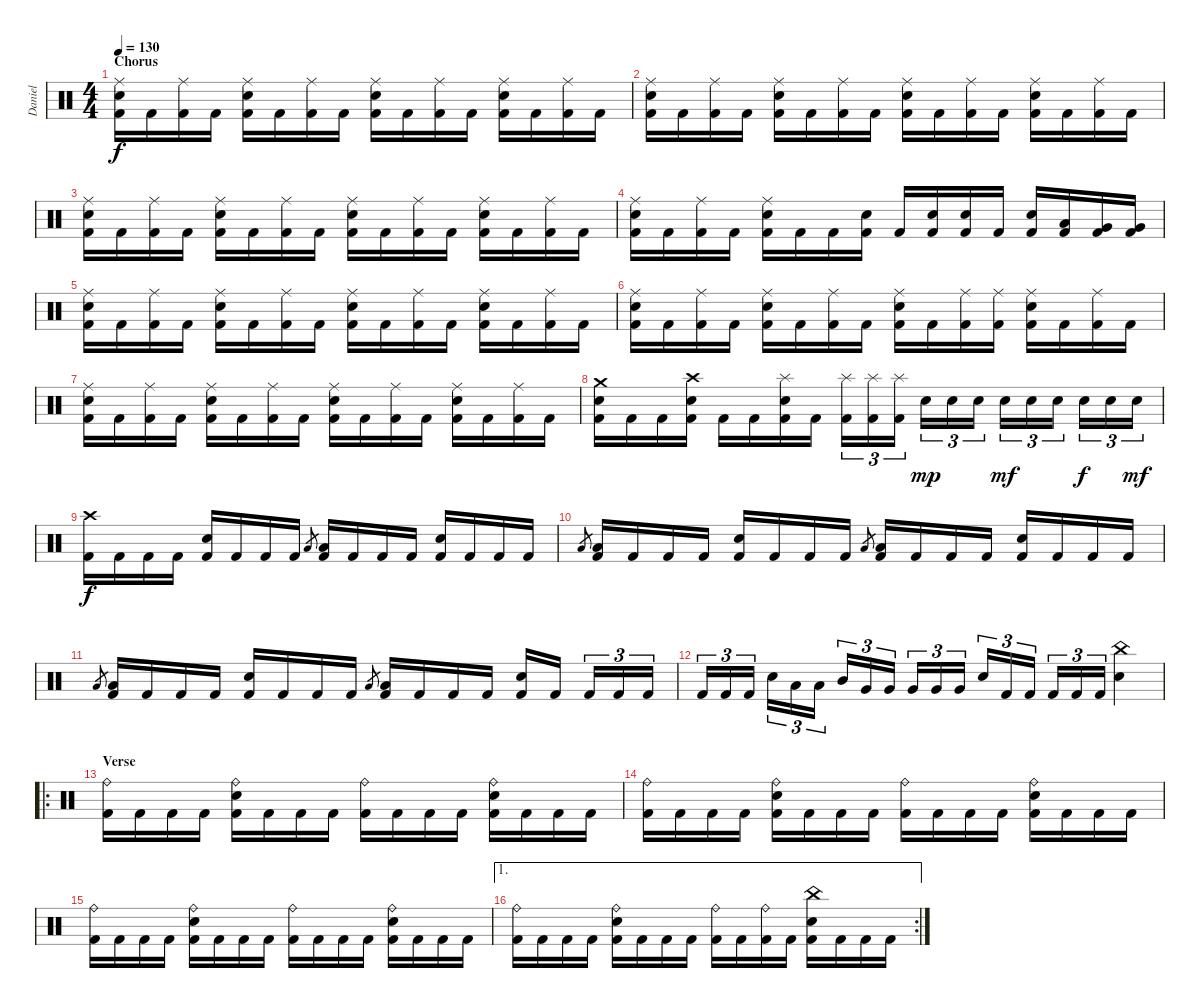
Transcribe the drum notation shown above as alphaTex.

\track ("Daniel" "Daniel") {instrument percussion}
\staff {score}
\articulation defaults
\ts (4 4)
\section ("" "Chorus")
\tempo 130
\clef neutral
\ks c
("Ride (middle)" "Electric Snare (hit)" "Kick (hit) 2").16{dy f} "Kick (hit) 2".16 ("Ride (middle)" "Kick (hit) 2").16 "Kick (hit) 2".16 ("Ride (middle)" "Electric Snare (hit)" "Kick (hit) 2").16 "Kick (hit) 2".16 ("Ride (middle)" "Kick (hit) 2").16 "Kick (hit) 2".16 ("Ride (middle)" "Electric Snare (hit)" "Kick (hit) 2").16 "Kick (hit) 2".16 ("Ride (middle)" "Kick (hit) 2").16 "Kick (hit) 2".16 ("Ride (middle)" "Electric Snare (hit)" "Kick (hit) 2").16 "Kick (hit) 2".16 ("Ride (middle)" "Kick (hit) 2").16 "Kick (hit) 2".16 |
("Ride (middle)" "Electric Snare (hit)" "Kick (hit) 2").16 "Kick (hit) 2".16 ("Ride (middle)" "Kick (hit) 2").16 "Kick (hit) 2".16 ("Ride (middle)" "Electric Snare (hit)" "Kick (hit) 2").16 "Kick (hit) 2".16 ("Ride (middle)" "Kick (hit) 2").16 "Kick (hit) 2".16 ("Ride (middle)" "Electric Snare (hit)" "Kick (hit) 2").16 "Kick (hit) 2".16 ("Ride (middle)" "Kick (hit) 2").16 "Kick (hit) 2".16 ("Ride (middle)" "Electric Snare (hit)" "Kick (hit) 2").16 "Kick (hit) 2".16 ("Ride (middle)" "Kick (hit) 2").16 "Kick (hit) 2".16 |
("Ride (middle)" "Electric Snare (hit)" "Kick (hit) 2").16 "Kick (hit) 2".16 ("Ride (middle)" "Kick (hit) 2").16 "Kick (hit) 2".16 ("Ride (middle)" "Electric Snare (hit)" "Kick (hit) 2").16 "Kick (hit) 2".16 ("Ride (middle)" "Kick (hit) 2").16 "Kick (hit) 2".16 ("Ride (middle)" "Electric Snare (hit)" "Kick (hit) 2").16 "Kick (hit) 2".16 ("Ride (middle)" "Kick (hit) 2").16 "Kick (hit) 2".16 ("Ride (middle)" "Electric Snare (hit)" "Kick (hit) 2").16 "Kick (hit) 2".16 ("Ride (middle)" "Kick (hit) 2").16 "Kick (hit) 2".16 |
("Ride (middle)" "Electric Snare (hit)" "Kick (hit) 2").16 "Kick (hit) 2".16 ("Ride (middle)" "Kick (hit) 2").16 "Kick (hit) 2".16 ("Ride (middle)" "Electric Snare (hit)" "Kick (hit) 2").16 "Kick (hit) 2".16 "Kick (hit) 2".16 ("Electric Snare (hit)" "Kick (hit) 2").16 "Kick (hit) 2".16 ("Electric Snare (hit)" "Kick (hit) 2").16 ("Electric Snare (hit)" "Kick (hit) 2").16 "Kick (hit) 2".16 ("Electric Snare (hit)" "Kick (hit) 2").16 ("Low Tom (hit)" "Kick (hit) 2").16 ("Very Low Tom (hit)" "Kick (hit) 2").16 ("Very Low Tom (hit)" "Kick (hit) 2").16 |
("Ride (middle)" "Electric Snare (hit)" "Kick (hit) 2").16 "Kick (hit) 2".16 ("Ride (middle)" "Kick (hit) 2").16 "Kick (hit) 2".16 ("Ride (middle)" "Electric Snare (hit)" "Kick (hit) 2").16 "Kick (hit) 2".16 ("Ride (middle)" "Kick (hit) 2").16 "Kick (hit) 2".16 ("Ride (middle)" "Electric Snare (hit)" "Kick (hit) 2").16 "Kick (hit) 2".16 ("Ride (middle)" "Kick (hit) 2").16 "Kick (hit) 2".16 ("Ride (middle)" "Electric Snare (hit)" "Kick (hit) 2").16 "Kick (hit) 2".16 ("Ride (middle)" "Kick (hit) 2").16 "Kick (hit) 2".16 |
("Ride (middle)" "Electric Snare (hit)" "Kick (hit) 2").16 "Kick (hit) 2".16 ("Ride (middle)" "Kick (hit) 2").16 "Kick (hit) 2".16 ("Ride (middle)" "Electric Snare (hit)" "Kick (hit) 2").16 "Kick (hit) 2".16 ("Ride (middle)" "Kick (hit) 2").16 "Kick (hit) 2".16 ("Ride (middle)" "Electric Snare (hit)" "Kick (hit) 2").16 "Kick (hit) 2".16 ("Ride (middle)" "Kick (hit) 2").16 ("Ride (middle)" "Kick (hit) 2").16 ("Ride (middle)" "Electric Snare (hit)" "Kick (hit) 2").16 "Kick (hit) 2".16 ("Ride (middle)" "Kick (hit) 2").16 "Kick (hit) 2".16 |
("Ride (middle)" "Electric Snare (hit)" "Kick (hit) 2").16 "Kick (hit) 2".16 ("Ride (middle)" "Kick (hit) 2").16 "Kick (hit) 2".16 ("Ride (middle)" "Electric Snare (hit)" "Kick (hit) 2").16 "Kick (hit) 2".16 ("Ride (middle)" "Kick (hit) 2").16 "Kick (hit) 2".16 ("Ride (middle)" "Electric Snare (hit)" "Kick (hit) 2").16 "Kick (hit) 2".16 ("Ride (middle)" "Kick (hit) 2").16 "Kick (hit) 2".16 ("Ride (middle)" "Electric Snare (hit)" "Kick (hit) 2").16 "Kick (hit) 2".16 ("Ride (middle)" "Kick (hit) 2").16 "Kick (hit) 2".16 |
("Crash medium (hit)" "Electric Snare (hit)" "Kick (hit) 2").16 "Kick (hit) 2".16 "Kick (hit) 2".16 ("Crash high (hit)" "Electric Snare (hit)" "Kick (hit) 2").16 "Kick (hit) 2".16 "Kick (hit) 2".16 ("Splash (hit)" "Electric Snare (hit)" "Kick (hit) 2").16 "Kick (hit) 2".16 ("Splash (hit)" "Kick (hit) 2").16{tu (3 2)} ("Splash (hit)" "Kick (hit) 2").16{tu (3 2)} ("Splash (hit)" "Kick (hit) 2").16{tu (3 2)} "Electric Snare (hit)".16{tu (3 2) dy mp} "Electric Snare (hit)".16{tu (3 2)} "Electric Snare (hit)".16{tu (3 2)} "Electric Snare (hit)".16{tu (3 2) dy mf} "Electric Snare (hit)".16{tu (3 2)} "Electric Snare (hit)".16{tu (3 2)} "Electric Snare (hit)".16{tu (3 2) dy f} "Electric Snare (hit)".16{tu (3 2)} "Electric Snare (hit)".16{tu (3 2) dy mf} |
("Crash high (hit)" "Kick (hit) 2").16{dy f} "Kick (hit) 2".16 "Kick (hit) 2".16 "Kick (hit) 2".16 ("Electric Snare (hit)" "Kick (hit) 2").16 "Kick (hit) 2".16 "Kick (hit) 2".16 "Kick (hit) 2".16 "Low Floor Tom (hit)".8{gr} ("Low Floor Tom (hit)" "Kick (hit) 2").16 "Kick (hit) 2".16 "Kick (hit) 2".16 "Kick (hit) 2".16 ("Electric Snare (hit)" "Kick (hit) 2").16 "Kick (hit) 2".16 "Kick (hit) 2".16 "Kick (hit) 2".16 |
"Low Floor Tom (hit)".8{gr} ("Low Floor Tom (hit)" "Kick (hit) 2").16 "Kick (hit) 2".16 "Kick (hit) 2".16 "Kick (hit) 2".16 ("Electric Snare (hit)" "Kick (hit) 2").16 "Kick (hit) 2".16 "Kick (hit) 2".16 "Kick (hit) 2".16 "Low Floor Tom (hit)".8{gr} ("Low Floor Tom (hit)" "Kick (hit) 2").16 "Kick (hit) 2".16 "Kick (hit) 2".16 "Kick (hit) 2".16 ("Electric Snare (hit)" "Kick (hit) 2").16 "Kick (hit) 2".16 "Kick (hit) 2".16 "Kick (hit) 2".16 |
"Low Floor Tom (hit)".8{gr} ("Low Floor Tom (hit)" "Kick (hit) 2").16 "Kick (hit) 2".16 "Kick (hit) 2".16 "Kick (hit) 2".16 ("Electric Snare (hit)" "Kick (hit) 2").16 "Kick (hit) 2".16 "Kick (hit) 2".16 "Kick (hit) 2".16 "Low Floor Tom (hit)".8{gr} ("Low Floor Tom (hit)" "Kick (hit) 2").16 "Kick (hit) 2".16 "Kick (hit) 2".16 "Kick (hit) 2".16 ("Electric Snare (hit)" "Kick (hit) 2").16 "Kick (hit) 2".16 "Kick (hit) 2".16{tu (3 2)} "Kick (hit) 2".16{tu (3 2)} "Kick (hit) 2".16{tu (3 2)} |
"Kick (hit) 2".16{tu (3 2)} "Kick (hit) 2".16{tu (3 2)} "Kick (hit) 2".16{tu (3 2)} "Electric Snare (hit)".16{tu (3 2)} "Low Tom (hit)".16{tu (3 2)} "Low Tom (hit)".16{tu (3 2)} "Mid Tom (hit)".16{tu (3 2)} "Very Low Tom (hit)".16{tu (3 2)} "Very Low Tom (hit)".16{tu (3 2)} "Very Low Tom (hit)".16{tu (3 2)} "Very Low Tom (hit)".16{tu (3 2)} "Very Low Tom (hit)".16{tu (3 2)} "Electric Snare (hit)".16{tu (3 2)} "Kick (hit) 2".16{tu (3 2)} "Kick (hit) 2".16{tu (3 2)} "Kick (hit) 2".16{tu (3 2)} "Kick (hit) 2".16{tu (3 2)} "Kick (hit) 2".16{tu (3 2)} ("China (hit)" "Electric Snare (hit)").4 |
\ro
\section ("" "Verse")
("Ride (bell)" "Kick (hit) 2").16 "Kick (hit) 2".16 "Kick (hit) 2".16 "Kick (hit) 2".16 ("Ride (bell)" "Electric Snare (hit)" "Kick (hit) 2").16 "Kick (hit) 2".16 "Kick (hit) 2".16 "Kick (hit) 2".16 ("Ride (bell)" "Kick (hit) 2").16 "Kick (hit) 2".16 "Kick (hit) 2".16 "Kick (hit) 2".16 ("Ride (bell)" "Electric Snare (hit)" "Kick (hit) 2").16 "Kick (hit) 2".16 "Kick (hit) 2".16 "Kick (hit) 2".16 |
("Ride (bell)" "Kick (hit) 2").16 "Kick (hit) 2".16 "Kick (hit) 2".16 "Kick (hit) 2".16 ("Ride (bell)" "Electric Snare (hit)" "Kick (hit) 2").16 "Kick (hit) 2".16 "Kick (hit) 2".16 "Kick (hit) 2".16 ("Ride (bell)" "Kick (hit) 2").16 "Kick (hit) 2".16 "Kick (hit) 2".16 "Kick (hit) 2".16 ("Ride (bell)" "Electric Snare (hit)" "Kick (hit) 2").16 "Kick (hit) 2".16 "Kick (hit) 2".16 "Kick (hit) 2".16 |
("Ride (bell)" "Kick (hit) 2").16 "Kick (hit) 2".16 "Kick (hit) 2".16 "Kick (hit) 2".16 ("Ride (bell)" "Electric Snare (hit)" "Kick (hit) 2").16 "Kick (hit) 2".16 "Kick (hit) 2".16 "Kick (hit) 2".16 ("Ride (bell)" "Kick (hit) 2").16 "Kick (hit) 2".16 "Kick (hit) 2".16 "Kick (hit) 2".16 ("Ride (bell)" "Electric Snare (hit)" "Kick (hit) 2").16 "Kick (hit) 2".16 "Kick (hit) 2".16 "Kick (hit) 2".16 |
\ae 1
\rc 2
("Ride (bell)" "Kick (hit) 2").16 "Kick (hit) 2".16 "Kick (hit) 2".16 "Kick (hit) 2".16 ("Ride (bell)" "Electric Snare (hit)" "Kick (hit) 2").16 "Kick (hit) 2".16 "Kick (hit) 2".16 "Kick (hit) 2".16 ("Ride (bell)" "Kick (hit) 2").16 "Kick (hit) 2".16 ("Ride (bell)" "Kick (hit) 2").16 "Kick (hit) 2".16 ("China (hit)" "Electric Snare (hit)" "Kick (hit) 2").16 "Kick (hit) 2".16 "Kick (hit) 2".16 "Kick (hit) 2".16
